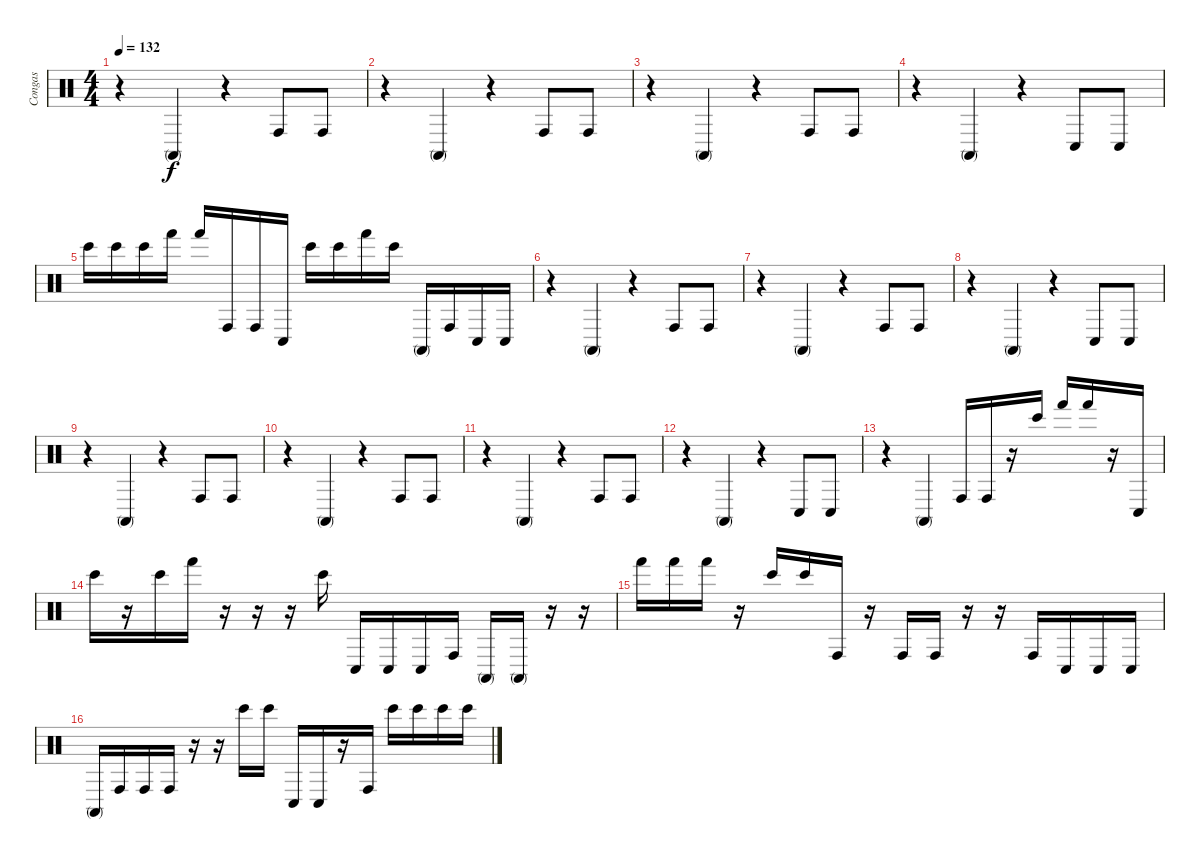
\track ("Congas" "Congas") {instrument percussion}
\staff {score}
\articulation defaults
\ts (4 4)
\tempo 132
\clef neutral
\ks c
r.4{dy f} "Conga high (mute)".4 r.4 "Conga high (hit)".8 "Conga high (hit)".8 |
r.4 "Conga high (mute)".4 r.4 "Conga high (hit)".8 "Conga high (hit)".8 |
r.4 "Conga high (mute)".4 r.4 "Conga high (hit)".8 "Conga high (hit)".8 |
r.4 "Conga high (mute)".4 r.4 "Conga low (hit)".8 "Conga low (hit)".8 |
"Bongo High (hit)".16 "Bongo High (hit)".16 "Bongo High (hit)".16 "Hand (hit)".16 "Hand (hit)".16 "Conga high (hit)".16 "Conga high (hit)".16 "Conga low (hit)".16 "Bongo High (hit)".16 "Bongo High (hit)".16 "Hand (hit)".16 "Bongo High (hit)".16 "Conga high (mute)".16 "Conga high (hit)".16 "Conga low (hit)".16 "Conga low (hit)".16 |
r.4 "Conga high (mute)".4 r.4 "Conga high (hit)".8 "Conga high (hit)".8 |
r.4 "Conga high (mute)".4 r.4 "Conga high (hit)".8 "Conga high (hit)".8 |
r.4 "Conga high (mute)".4 r.4 "Conga low (hit)".8 "Conga low (hit)".8 |
r.4 "Conga high (mute)".4 r.4 "Conga high (hit)".8 "Conga high (hit)".8 |
r.4 "Conga high (mute)".4 r.4 "Conga high (hit)".8 "Conga high (hit)".8 |
r.4 "Conga high (mute)".4 r.4 "Conga high (hit)".8 "Conga high (hit)".8 |
r.4 "Conga high (mute)".4 r.4 "Conga low (hit)".8 "Conga low (hit)".8 |
r.4 "Conga high (mute)".4 "Conga high (hit)".16 "Conga high (hit)".16 r.16 "Bongo High (hit)".16 "Hand (hit)".16 "Hand (hit)".16 r.16 "Conga low (hit)".16 |
"Bongo High (hit)".16 r.16 "Bongo High (hit)".16 "Hand (hit)".16 r.16 r.16 r.16 "Bongo High (hit)".16 "Conga low (hit)".16 "Conga low (hit)".16 "Conga low (hit)".16 "Conga high (hit)".16 "Conga high (mute)".16 "Conga high (mute)".16 r.16 r.16 |
"Hand (hit)".16 "Hand (hit)".16 "Hand (hit)".16 r.16 "Bongo High (hit)".16 "Bongo High (hit)".16 "Conga high (hit)".16 r.16 "Conga high (hit)".16 "Conga high (hit)".16 r.16 r.16 "Conga high (hit)".16 "Conga low (hit)".16 "Conga low (hit)".16 "Conga low (hit)".16 |
"Conga high (mute)".16 "Conga high (hit)".16 "Conga high (hit)".16 "Conga high (hit)".16 r.16 r.16 "Bongo High (hit)".16 "Bongo High (hit)".16 "Conga low (hit)".16 "Conga low (hit)".16 r.16 "Conga high (hit)".16 "Bongo High (hit)".16 "Bongo High (hit)".16 "Bongo High (hit)".16 "Bongo High (hit)".16
